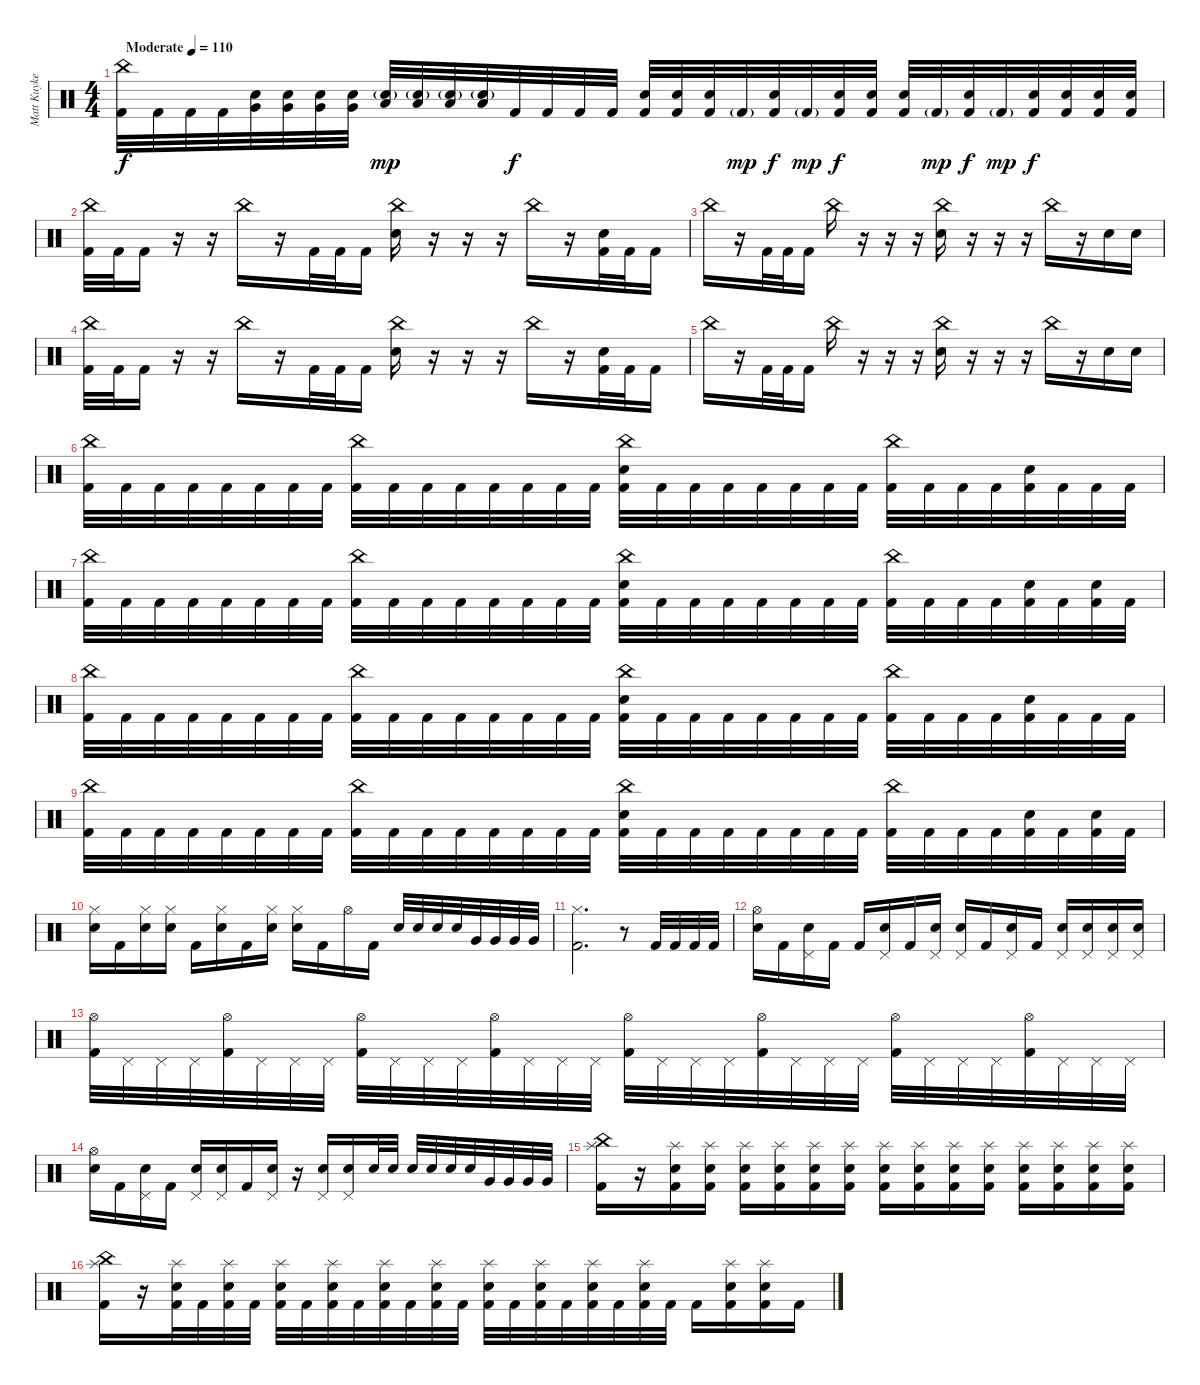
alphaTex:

\track ("Matt Kuykendall (Drums)" "Matt Kuyke") {instrument percussion}
\staff {score}
\articulation defaults
\ts (4 4)
\tempo (110 "Moderate")
\clef neutral
\ks c
("China (hit)" "Kick (hit) 2").32{dy f} "Kick (hit) 2".32 "Kick (hit) 2".32 "Kick (hit) 2".32 ("Very Low Tom (hit)" "Snare (hit) 2").32 ("Very Low Tom (hit)" "Snare (hit) 2").32 ("Very Low Tom (hit)" "Snare (hit) 2").32 ("Very Low Tom (hit)" "Snare (hit) 2").32 ("Low Floor Tom (hit)" "Snare (hit) 2"{g}).32{dy mp} ("Low Floor Tom (hit)" "Snare (hit) 2"{g}).32 ("Low Floor Tom (hit)" "Snare (hit) 2"{g}).32 ("Low Floor Tom (hit)" "Snare (hit) 2"{g}).32 "Kick (hit) 2".32{dy f} "Kick (hit) 2".32 "Kick (hit) 2".32 "Kick (hit) 2".32 ("Snare (hit) 2" "Kick (hit) 2").32 ("Snare (hit) 2" "Kick (hit) 2").32 ("Snare (hit) 2" "Kick (hit) 2").32 "Kick (hit) 2"{g}.32{dy mp} ("Snare (hit) 2" "Kick (hit) 2").32{dy f} "Kick (hit) 2"{g}.32{dy mp} ("Snare (hit) 2" "Kick (hit) 2").32{dy f} ("Snare (hit) 2" "Kick (hit) 2").32 ("Snare (hit) 2" "Kick (hit) 2").32 "Kick (hit) 2"{g}.32{dy mp} ("Snare (hit) 2" "Kick (hit) 2").32{dy f} "Kick (hit) 2"{g}.32{dy mp} ("Snare (hit) 2" "Kick (hit) 2").32{dy f} ("Snare (hit) 2" "Kick (hit) 2").32 ("Snare (hit) 2" "Kick (hit) 2").32 ("Snare (hit) 2" "Kick (hit) 2").32 |
("China (hit)" "Kick (hit) 2").32 "Kick (hit) 2".32 "Kick (hit) 2".16 r.16 r.16 "China (hit)".16 r.16 "Kick (hit) 2".32 "Kick (hit) 2".32 "Kick (hit) 2".16 ("China (hit)" "Snare (hit) 2").16 r.16 r.16 r.16 "China (hit)".16 r.16 ("Snare (hit) 2" "Kick (hit) 2").32 "Kick (hit) 2".32 "Kick (hit) 2".16 |
"China (hit)".16 r.16 "Kick (hit) 2".32 "Kick (hit) 2".32 "Kick (hit) 2".16 "China (hit)".16 r.16 r.16 r.16 ("China (hit)" "Snare (hit) 2").16 r.16 r.16 r.16 "China (hit)".16 r.16 "Snare (hit) 2".16 "Snare (hit) 2".16 |
("China (hit)" "Kick (hit) 2").32 "Kick (hit) 2".32 "Kick (hit) 2".16 r.16 r.16 "China (hit)".16 r.16 "Kick (hit) 2".32 "Kick (hit) 2".32 "Kick (hit) 2".16 ("China (hit)" "Snare (hit) 2").16 r.16 r.16 r.16 "China (hit)".16 r.16 ("Snare (hit) 2" "Kick (hit) 2").32 "Kick (hit) 2".32 "Kick (hit) 2".16 |
"China (hit)".16 r.16 "Kick (hit) 2".32 "Kick (hit) 2".32 "Kick (hit) 2".16 "China (hit)".16 r.16 r.16 r.16 ("China (hit)" "Snare (hit) 2").16 r.16 r.16 r.16 "China (hit)".16 r.16 "Snare (hit) 2".16 "Snare (hit) 2".16 |
("China (hit)" "Kick (hit) 2").32 "Kick (hit) 2".32 "Kick (hit) 2".32 "Kick (hit) 2".32 "Kick (hit) 2".32 "Kick (hit) 2".32 "Kick (hit) 2".32 "Kick (hit) 2".32 ("China (hit)" "Kick (hit) 2").32 "Kick (hit) 2".32 "Kick (hit) 2".32 "Kick (hit) 2".32 "Kick (hit) 2".32 "Kick (hit) 2".32 "Kick (hit) 2".32 "Kick (hit) 2".32 ("China (hit)" "Snare (hit) 2" "Kick (hit) 2").32 "Kick (hit) 2".32 "Kick (hit) 2".32 "Kick (hit) 2".32 "Kick (hit) 2".32 "Kick (hit) 2".32 "Kick (hit) 2".32 "Kick (hit) 2".32 ("China (hit)" "Kick (hit) 2").32 "Kick (hit) 2".32 "Kick (hit) 2".32 "Kick (hit) 2".32 ("Snare (hit) 2" "Kick (hit) 2").32 "Kick (hit) 2".32 "Kick (hit) 2".32 "Kick (hit) 2".32 |
("China (hit)" "Kick (hit) 2").32 "Kick (hit) 2".32 "Kick (hit) 2".32 "Kick (hit) 2".32 "Kick (hit) 2".32 "Kick (hit) 2".32 "Kick (hit) 2".32 "Kick (hit) 2".32 ("China (hit)" "Kick (hit) 2").32 "Kick (hit) 2".32 "Kick (hit) 2".32 "Kick (hit) 2".32 "Kick (hit) 2".32 "Kick (hit) 2".32 "Kick (hit) 2".32 "Kick (hit) 2".32 ("China (hit)" "Snare (hit) 2" "Kick (hit) 2").32 "Kick (hit) 2".32 "Kick (hit) 2".32 "Kick (hit) 2".32 "Kick (hit) 2".32 "Kick (hit) 2".32 "Kick (hit) 2".32 "Kick (hit) 2".32 ("China (hit)" "Kick (hit) 2").32 "Kick (hit) 2".32 "Kick (hit) 2".32 "Kick (hit) 2".32 ("Snare (hit) 2" "Kick (hit) 2").32 "Kick (hit) 2".32 ("Snare (hit) 2" "Kick (hit) 2").32 "Kick (hit) 2".32 |
("China (hit)" "Kick (hit) 2").32 "Kick (hit) 2".32 "Kick (hit) 2".32 "Kick (hit) 2".32 "Kick (hit) 2".32 "Kick (hit) 2".32 "Kick (hit) 2".32 "Kick (hit) 2".32 ("China (hit)" "Kick (hit) 2").32 "Kick (hit) 2".32 "Kick (hit) 2".32 "Kick (hit) 2".32 "Kick (hit) 2".32 "Kick (hit) 2".32 "Kick (hit) 2".32 "Kick (hit) 2".32 ("China (hit)" "Snare (hit) 2" "Kick (hit) 2").32 "Kick (hit) 2".32 "Kick (hit) 2".32 "Kick (hit) 2".32 "Kick (hit) 2".32 "Kick (hit) 2".32 "Kick (hit) 2".32 "Kick (hit) 2".32 ("China (hit)" "Kick (hit) 2").32 "Kick (hit) 2".32 "Kick (hit) 2".32 "Kick (hit) 2".32 ("Snare (hit) 2" "Kick (hit) 2").32 "Kick (hit) 2".32 "Kick (hit) 2".32 "Kick (hit) 2".32 |
("China (hit)" "Kick (hit) 2").32 "Kick (hit) 2".32 "Kick (hit) 2".32 "Kick (hit) 2".32 "Kick (hit) 2".32 "Kick (hit) 2".32 "Kick (hit) 2".32 "Kick (hit) 2".32 ("China (hit)" "Kick (hit) 2").32 "Kick (hit) 2".32 "Kick (hit) 2".32 "Kick (hit) 2".32 "Kick (hit) 2".32 "Kick (hit) 2".32 "Kick (hit) 2".32 "Kick (hit) 2".32 ("China (hit)" "Snare (hit) 2" "Kick (hit) 2").32 "Kick (hit) 2".32 "Kick (hit) 2".32 "Kick (hit) 2".32 "Kick (hit) 2".32 "Kick (hit) 2".32 "Kick (hit) 2".32 "Kick (hit) 2".32 ("China (hit)" "Kick (hit) 2").32 "Kick (hit) 2".32 "Kick (hit) 2".32 "Kick (hit) 2".32 ("Snare (hit) 2" "Kick (hit) 2").32 "Kick (hit) 2".32 ("Snare (hit) 2" "Kick (hit) 2").32 "Kick (hit) 2".32 |
("Hi-Hat (closed)" "Snare (hit) 2").16 "Kick (hit) 2".16 ("Hi-Hat (closed)" "Snare (hit) 2").16 ("Hi-Hat (closed)" "Snare (hit) 2").16 "Kick (hit) 2".16 ("Hi-Hat (closed)" "Snare (hit) 2").16 "Kick (hit) 2".16 ("Hi-Hat (closed)" "Snare (hit) 2").16 ("Hi-Hat (closed)" "Snare (hit) 2").16 "Kick (hit) 2".16 "Hi-Hat (open)".16 "Kick (hit) 2".16 "Snare (hit) 2".32 "Snare (hit) 2".32 "Snare (hit) 2".32 "Snare (hit) 2".32 "Very Low Tom (hit)".32 "Very Low Tom (hit)".32 "Very Low Tom (hit)".32 "Very Low Tom (hit)".32 |
("Hi-Hat (closed)" "Kick (hit) 2").2{d} r.8 "Kick (hit) 2".32 "Kick (hit) 2".32 "Kick (hit) 2".32 "Kick (hit) 2".32 |
("Hi-Hat (open)" "Snare (hit) 2").16 "Kick (hit) 2".16 ("Pedal Hi-Hat (hit)" "Snare (hit) 2").16 "Kick (hit) 2".16 "Kick (hit) 2".16 ("Pedal Hi-Hat (hit)" "Snare (hit) 2").16 "Kick (hit) 2".16 ("Pedal Hi-Hat (hit)" "Snare (hit) 2").16 ("Pedal Hi-Hat (hit)" "Snare (hit) 2").16 "Kick (hit) 2".16 ("Pedal Hi-Hat (hit)" "Snare (hit) 2").16 "Kick (hit) 2".16 ("Pedal Hi-Hat (hit)" "Snare (hit) 2").16 ("Pedal Hi-Hat (hit)" "Snare (hit) 2").16 ("Pedal Hi-Hat (hit)" "Snare (hit) 2").16 ("Pedal Hi-Hat (hit)" "Snare (hit) 2").16 |
("Hi-Hat (open)" "Kick (hit) 2").32 "Pedal Hi-Hat (hit)".32 "Pedal Hi-Hat (hit)".32 "Pedal Hi-Hat (hit)".32 ("Hi-Hat (open)" "Kick (hit) 2").32 "Pedal Hi-Hat (hit)".32 "Pedal Hi-Hat (hit)".32 "Pedal Hi-Hat (hit)".32 ("Hi-Hat (open)" "Kick (hit) 2").32 "Pedal Hi-Hat (hit)".32 "Pedal Hi-Hat (hit)".32 "Pedal Hi-Hat (hit)".32 ("Hi-Hat (open)" "Kick (hit) 2").32 "Pedal Hi-Hat (hit)".32 "Pedal Hi-Hat (hit)".32 "Pedal Hi-Hat (hit)".32 ("Hi-Hat (open)" "Kick (hit) 2").32 "Pedal Hi-Hat (hit)".32 "Pedal Hi-Hat (hit)".32 "Pedal Hi-Hat (hit)".32 ("Hi-Hat (open)" "Kick (hit) 2").32 "Pedal Hi-Hat (hit)".32 "Pedal Hi-Hat (hit)".32 "Pedal Hi-Hat (hit)".32 ("Hi-Hat (open)" "Kick (hit) 2").32 "Pedal Hi-Hat (hit)".32 "Pedal Hi-Hat (hit)".32 "Pedal Hi-Hat (hit)".32 ("Hi-Hat (open)" "Kick (hit) 2").32 "Pedal Hi-Hat (hit)".32 "Pedal Hi-Hat (hit)".32 "Pedal Hi-Hat (hit)".32 |
("Hi-Hat (open)" "Snare (hit) 2").16 "Kick (hit) 2".16 ("Pedal Hi-Hat (hit)" "Snare (hit) 2").16 "Kick (hit) 2".16 ("Pedal Hi-Hat (hit)" "Snare (hit) 2").16 ("Pedal Hi-Hat (hit)" "Snare (hit) 2").16 "Kick (hit) 2".16 ("Pedal Hi-Hat (hit)" "Snare (hit) 2").16 r.16 ("Pedal Hi-Hat (hit)" "Snare (hit) 2").16 ("Pedal Hi-Hat (hit)" "Snare (hit) 2").16 "Snare (hit) 2".32 "Snare (hit) 2".32 "Snare (hit) 2".32 "Snare (hit) 2".32 "Snare (hit) 2".32 "Snare (hit) 2".32 "Very Low Tom (hit)".32 "Very Low Tom (hit)".32 "Very Low Tom (hit)".32 "Very Low Tom (hit)".32 |
("China (hit)" "Splash (hit)" "Kick (hit) 2").16 r.16 ("Splash (hit)" "Snare (hit) 2" "Kick (hit) 2").16 ("Splash (hit)" "Snare (hit) 2" "Kick (hit) 2").16 ("Splash (hit)" "Snare (hit) 2" "Kick (hit) 2").16 ("Splash (hit)" "Snare (hit) 2" "Kick (hit) 2").16 ("Splash (hit)" "Snare (hit) 2" "Kick (hit) 2").16 ("Splash (hit)" "Snare (hit) 2" "Kick (hit) 2").16 ("Splash (hit)" "Snare (hit) 2" "Kick (hit) 2").16 ("Splash (hit)" "Snare (hit) 2" "Kick (hit) 2").16 ("Splash (hit)" "Snare (hit) 2" "Kick (hit) 2").16 ("Splash (hit)" "Snare (hit) 2" "Kick (hit) 2").16 ("Splash (hit)" "Snare (hit) 2" "Kick (hit) 2").16 ("Splash (hit)" "Snare (hit) 2" "Kick (hit) 2").16 ("Splash (hit)" "Snare (hit) 2" "Kick (hit) 2").16 ("Splash (hit)" "Snare (hit) 2" "Kick (hit) 2").16 |
("China (hit)" "Splash (hit)" "Kick (hit) 2").16 r.16 ("Splash (hit)" "Snare (hit) 2" "Kick (hit) 2").32 "Kick (hit) 2".32 ("Splash (hit)" "Snare (hit) 2" "Kick (hit) 2").32 "Kick (hit) 2".32 ("Splash (hit)" "Snare (hit) 2" "Kick (hit) 2").32 "Kick (hit) 2".32 ("Splash (hit)" "Snare (hit) 2" "Kick (hit) 2").32 "Kick (hit) 2".32 ("Splash (hit)" "Snare (hit) 2" "Kick (hit) 2").32 "Kick (hit) 2".32 ("Splash (hit)" "Snare (hit) 2" "Kick (hit) 2").32 "Kick (hit) 2".32 ("Splash (hit)" "Snare (hit) 2" "Kick (hit) 2").32 "Kick (hit) 2".32 ("Splash (hit)" "Snare (hit) 2" "Kick (hit) 2").32 "Kick (hit) 2".32 ("Splash (hit)" "Snare (hit) 2" "Kick (hit) 2").32 "Kick (hit) 2".32 ("Splash (hit)" "Snare (hit) 2" "Kick (hit) 2").32 "Kick (hit) 2".32 "Kick (hit) 2".16 ("Splash (hit)" "Snare (hit) 2" "Kick (hit) 2").16 ("Splash (hit)" "Snare (hit) 2" "Kick (hit) 2").16 "Kick (hit) 2".16
